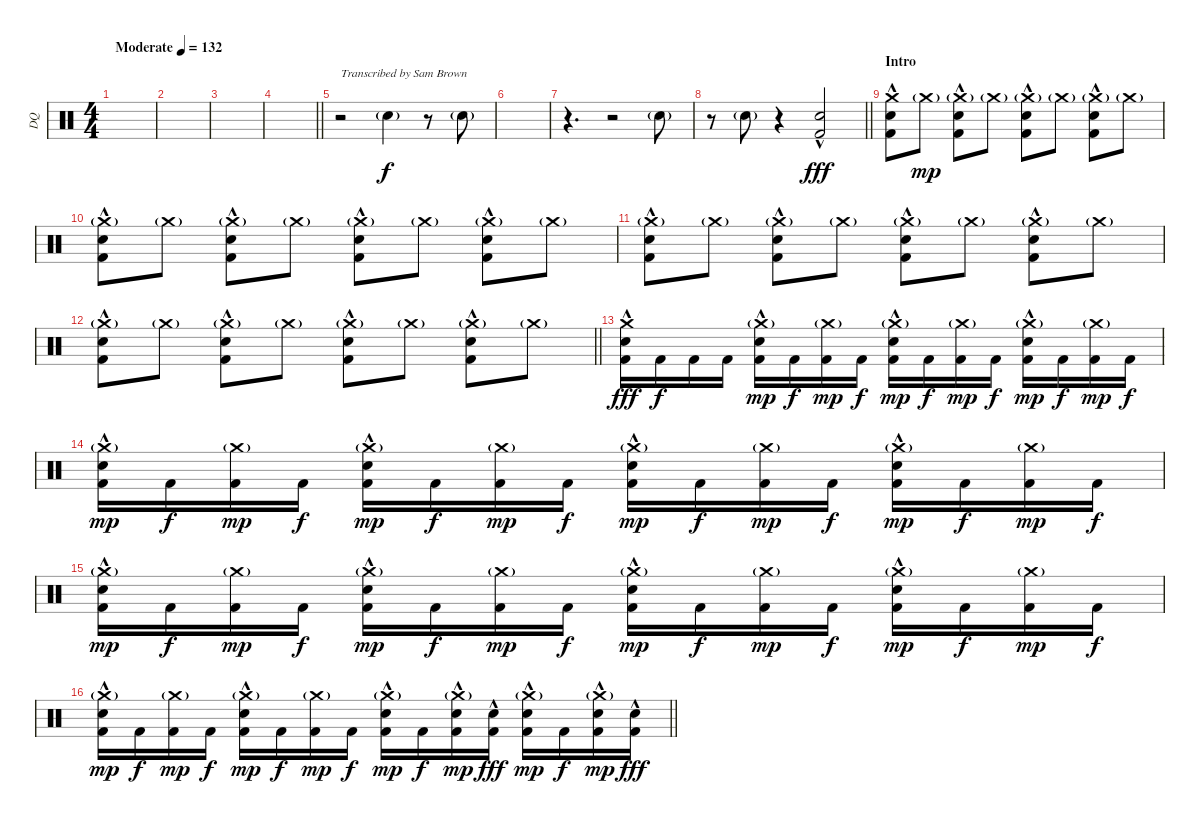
\track ("DQ" "DQ") {instrument percussion}
\staff {score}
\articulation defaults
\ts (4 4)
\tempo (132 "Moderate")
\clef neutral
\ks c
|
|
|
\barLineRight lightlight
|
r.2{txt "Transcribed by Sam Brown"} "Snare (hit) 2"{g}.4 r.8 "Snare (hit) 2"{g}.8 |
|
r.4{d} r.2 "Snare (hit) 2"{g}.8 |
\barLineRight lightlight
r.8 "Snare (hit) 2"{g}.8 r.4 ("Kick (hit) 2"{hac} "Snare (hit) 2"{hac}).2{dy fff} |
\section ("" "Intro")
("Kick (hit) 2"{hac} "Snare (hit) 2"{hac} "Crash medium (hit)").8 "Crash medium (hit)"{g}.8{dy mp} ("Kick (hit) 2"{hac} "Snare (hit) 2"{hac} "Crash medium (hit)"{g}).8 "Crash medium (hit)"{g}.8 ("Kick (hit) 2"{hac} "Snare (hit) 2"{hac} "Crash medium (hit)"{g}).8 "Crash medium (hit)"{g}.8 ("Kick (hit) 2"{hac} "Snare (hit) 2"{hac} "Crash medium (hit)"{g}).8 "Crash medium (hit)"{g}.8 |
("Kick (hit) 2"{hac} "Snare (hit) 2"{hac} "Crash medium (hit)"{g}).8 "Crash medium (hit)"{g}.8 ("Kick (hit) 2"{hac} "Snare (hit) 2"{hac} "Crash medium (hit)"{g}).8 "Crash medium (hit)"{g}.8 ("Kick (hit) 2"{hac} "Snare (hit) 2"{hac} "Crash medium (hit)"{g}).8 "Crash medium (hit)"{g}.8 ("Kick (hit) 2"{hac} "Snare (hit) 2"{hac} "Crash medium (hit)"{g}).8 "Crash medium (hit)"{g}.8 |
("Kick (hit) 2"{hac} "Snare (hit) 2"{hac} "Crash medium (hit)"{g}).8 "Crash medium (hit)"{g}.8 ("Kick (hit) 2"{hac} "Snare (hit) 2"{hac} "Crash medium (hit)"{g}).8 "Crash medium (hit)"{g}.8 ("Kick (hit) 2"{hac} "Snare (hit) 2"{hac} "Crash medium (hit)"{g}).8 "Crash medium (hit)"{g}.8 ("Kick (hit) 2"{hac} "Snare (hit) 2"{hac} "Crash medium (hit)"{g}).8 "Crash medium (hit)"{g}.8 |
\barLineRight lightlight
("Kick (hit) 2"{hac} "Snare (hit) 2"{hac} "Crash medium (hit)"{g}).8 "Crash medium (hit)"{g}.8 ("Kick (hit) 2"{hac} "Snare (hit) 2"{hac} "Crash medium (hit)"{g}).8 "Crash medium (hit)"{g}.8 ("Kick (hit) 2"{hac} "Snare (hit) 2"{hac} "Crash medium (hit)"{g}).8 "Crash medium (hit)"{g}.8 ("Kick (hit) 2"{hac} "Snare (hit) 2"{hac} "Crash medium (hit)"{g}).8 "Crash medium (hit)"{g}.8 |
\section ("" "")
("Kick (hit) 2" "Snare (hit) 2"{hac} "Crash medium (hit)").16{dy fff} "Kick (hit) 2".16{dy f} "Kick (hit) 2".16 "Kick (hit) 2".16 ("Kick (hit) 2" "Snare (hit) 2"{hac} "Crash medium (hit)"{g}).16{dy mp} "Kick (hit) 2".16{dy f} ("Kick (hit) 2" "Crash medium (hit)"{g}).16{dy mp} "Kick (hit) 2".16{dy f} ("Kick (hit) 2" "Snare (hit) 2"{hac} "Crash medium (hit)"{g}).16{dy mp} "Kick (hit) 2".16{dy f} ("Kick (hit) 2" "Crash medium (hit)"{g}).16{dy mp} "Kick (hit) 2".16{dy f} ("Kick (hit) 2" "Snare (hit) 2"{hac} "Crash medium (hit)"{g}).16{dy mp} "Kick (hit) 2".16{dy f} ("Kick (hit) 2" "Crash medium (hit)"{g}).16{dy mp} "Kick (hit) 2".16{dy f} |
("Kick (hit) 2" "Snare (hit) 2"{hac} "Crash medium (hit)"{g}).16{dy mp} "Kick (hit) 2".16{dy f} ("Kick (hit) 2" "Crash medium (hit)"{g}).16{dy mp} "Kick (hit) 2".16{dy f} ("Kick (hit) 2" "Snare (hit) 2"{hac} "Crash medium (hit)"{g}).16{dy mp} "Kick (hit) 2".16{dy f} ("Kick (hit) 2" "Crash medium (hit)"{g}).16{dy mp} "Kick (hit) 2".16{dy f} ("Kick (hit) 2" "Snare (hit) 2"{hac} "Crash medium (hit)"{g}).16{dy mp} "Kick (hit) 2".16{dy f} ("Kick (hit) 2" "Crash medium (hit)"{g}).16{dy mp} "Kick (hit) 2".16{dy f} ("Kick (hit) 2" "Snare (hit) 2"{hac} "Crash medium (hit)"{g}).16{dy mp} "Kick (hit) 2".16{dy f} ("Kick (hit) 2" "Crash medium (hit)"{g}).16{dy mp} "Kick (hit) 2".16{dy f} |
("Kick (hit) 2" "Snare (hit) 2"{hac} "Crash medium (hit)"{g}).16{dy mp} "Kick (hit) 2".16{dy f} ("Kick (hit) 2" "Crash medium (hit)"{g}).16{dy mp} "Kick (hit) 2".16{dy f} ("Kick (hit) 2" "Snare (hit) 2"{hac} "Crash medium (hit)"{g}).16{dy mp} "Kick (hit) 2".16{dy f} ("Kick (hit) 2" "Crash medium (hit)"{g}).16{dy mp} "Kick (hit) 2".16{dy f} ("Kick (hit) 2" "Snare (hit) 2"{hac} "Crash medium (hit)"{g}).16{dy mp} "Kick (hit) 2".16{dy f} ("Kick (hit) 2" "Crash medium (hit)"{g}).16{dy mp} "Kick (hit) 2".16{dy f} ("Kick (hit) 2" "Snare (hit) 2"{hac} "Crash medium (hit)"{g}).16{dy mp} "Kick (hit) 2".16{dy f} ("Kick (hit) 2" "Crash medium (hit)"{g}).16{dy mp} "Kick (hit) 2".16{dy f} |
\barLineRight lightlight
("Kick (hit) 2" "Snare (hit) 2"{hac} "Crash medium (hit)"{g}).16{dy mp} "Kick (hit) 2".16{dy f} ("Kick (hit) 2" "Crash medium (hit)"{g}).16{dy mp} "Kick (hit) 2".16{dy f} ("Kick (hit) 2" "Snare (hit) 2"{hac} "Crash medium (hit)"{g}).16{dy mp} "Kick (hit) 2".16{dy f} ("Kick (hit) 2" "Crash medium (hit)"{g}).16{dy mp} "Kick (hit) 2".16{dy f} ("Kick (hit) 2" "Snare (hit) 2"{hac} "Crash medium (hit)"{g}).16{dy mp} "Kick (hit) 2".16{dy f} ("Kick (hit) 2" "Snare (hit) 2"{hac} "Crash medium (hit)"{g}).16{dy mp} ("Kick (hit) 2" "Snare (hit) 2"{hac}).16{dy fff} ("Kick (hit) 2" "Snare (hit) 2"{hac} "Crash medium (hit)"{g}).16{dy mp} "Kick (hit) 2".16{dy f} ("Kick (hit) 2" "Snare (hit) 2"{hac} "Crash medium (hit)"{g}).16{dy mp} ("Kick (hit) 2" "Snare (hit) 2"{hac}).16{dy fff}
